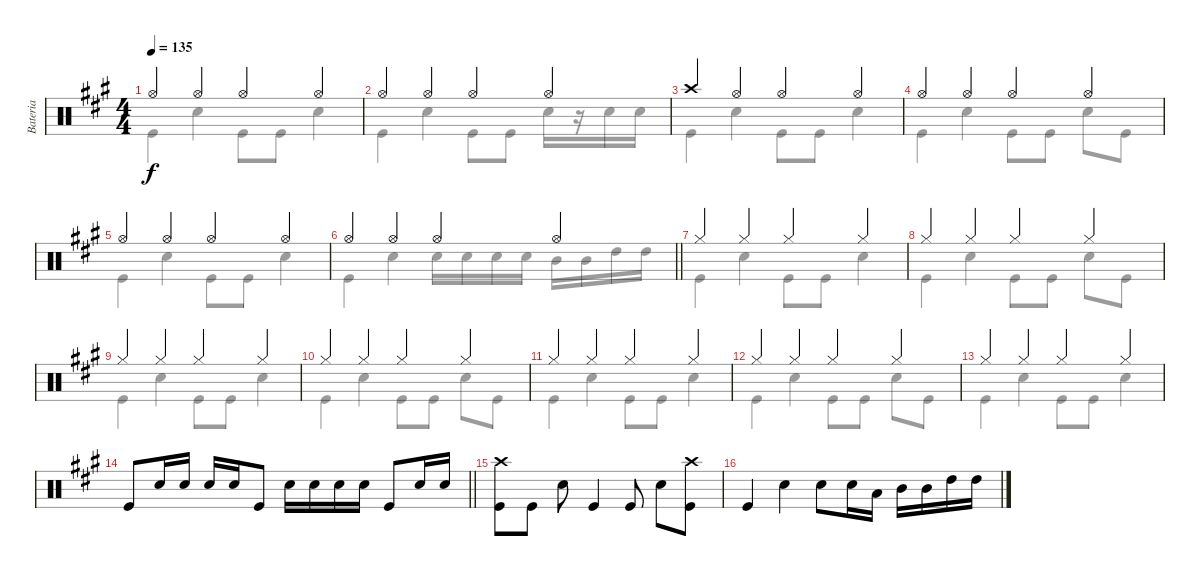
\track ("Bateria" "Bateria") {instrument percussion}
\staff {score}
\articulation defaults
\voice
\ts (4 4)
\tempo 135
\clef neutral
\ks a "Hi-Hat (open)".4{dy f} "Hi-Hat (open)".4 "Hi-Hat (open)".4 "Hi-Hat (open)".4
|
"Hi-Hat (open)".4 "Hi-Hat (open)".4 "Hi-Hat (open)".4 "Hi-Hat (open)".4 |
"Crash high (hit)".4 "Hi-Hat (open)".4 "Hi-Hat (open)".4 "Hi-Hat (open)".4 |
"Hi-Hat (open)".4 "Hi-Hat (open)".4 "Hi-Hat (open)".4 "Hi-Hat (open)".4 |
"Hi-Hat (open)".4 "Hi-Hat (open)".4 "Hi-Hat (open)".4 "Hi-Hat (open)".4 |
\barLineRight lightlight "Hi-Hat (open)".4 "Hi-Hat (open)".4 "Hi-Hat (open)".4 "Hi-Hat (open)".4
|
"Hi-Hat (closed)".4 "Hi-Hat (closed)".4 "Hi-Hat (closed)".4 "Hi-Hat (closed)".4 |
"Hi-Hat (closed)".4 "Hi-Hat (closed)".4 "Hi-Hat (closed)".4 "Hi-Hat (closed)".4 |
"Hi-Hat (closed)".4 "Hi-Hat (closed)".4 "Hi-Hat (closed)".4 "Hi-Hat (closed)".4 |
"Hi-Hat (closed)".4 "Hi-Hat (closed)".4 "Hi-Hat (closed)".4 "Hi-Hat (closed)".4 |
"Hi-Hat (closed)".4 "Hi-Hat (closed)".4 "Hi-Hat (closed)".4 "Hi-Hat (closed)".4 |
"Hi-Hat (closed)".4 "Hi-Hat (closed)".4 "Hi-Hat (closed)".4 "Hi-Hat (closed)".4 |
"Hi-Hat (closed)".4 "Hi-Hat (closed)".4 "Hi-Hat (closed)".4 "Hi-Hat (closed)".4 |
\barLineRight lightlight "Kick (hit)".8 "Snare (hit) 2".16 "Snare (hit) 2".16 "Snare (hit) 2".16 "Snare (hit) 2".16 "Kick (hit)".8 "Snare (hit) 2".16 "Snare (hit) 2".16 "Snare (hit) 2".16 "Snare (hit) 2".16 "Kick (hit)".8 "Snare (hit) 2".16 "Snare (hit) 2".16
|
("Crash high (hit)" "Kick (hit)").8 "Kick (hit)".8 "Snare (hit) 2".8 "Kick (hit)".4 "Kick (hit)".8 "Snare (hit) 2".8 ("Crash high (hit)" "Kick (hit)").8 |
"Kick (hit)".4 "Snare (hit) 2".4 "Snare (hit) 2".8 "Snare (hit) 2".16 "Low Tom (hit)".16 "Mid Tom (hit)".16 "Mid Tom (hit)".16 "High Tom (hit)".16 "High Tom (hit)".16
\voice
\clef neutral
\ottava regular
\simile none
\ks a "Kick (hit)".4{dy f} "Snare (hit) 2".4 "Kick (hit)".8 "Kick (hit)".8 "Snare (hit) 2".4
|
"Kick (hit)".4 "Snare (hit) 2".4 "Kick (hit)".8 "Kick (hit)".8 "Snare (hit) 2".16 r.16 "Snare (hit) 2".16 "Snare (hit) 2".16 |
"Kick (hit)".4 "Snare (hit) 2".4 "Kick (hit)".8 "Kick (hit)".8 "Snare (hit) 2".4 |
"Kick (hit)".4 "Snare (hit) 2".4 "Kick (hit)".8 "Kick (hit)".8 "Snare (hit) 2".8 "Kick (hit)".8 |
"Kick (hit)".4 "Snare (hit) 2".4 "Kick (hit)".8 "Kick (hit)".8 "Snare (hit) 2".4 |
\barLineRight lightlight "Kick (hit)".4 "Snare (hit) 2".4 "Snare (hit) 2".16 "Snare (hit) 2".16 "Snare (hit) 2".16 "Snare (hit) 2".16 "Mid Tom (hit)".16 "Mid Tom (hit)".16 "High Tom (hit)".16 "High Tom (hit)".16
|
"Kick (hit)".4 "Snare (hit) 2".4 "Kick (hit)".8 "Kick (hit)".8 "Snare (hit) 2".4 |
"Kick (hit)".4 "Snare (hit) 2".4 "Kick (hit)".8 "Kick (hit)".8 "Snare (hit) 2".8 "Kick (hit)".8 |
"Kick (hit)".4 "Snare (hit) 2".4 "Kick (hit)".8 "Kick (hit)".8 "Snare (hit) 2".4 |
"Kick (hit)".4 "Snare (hit) 2".4 "Kick (hit)".8 "Kick (hit)".8 "Snare (hit) 2".8 "Kick (hit)".8 |
"Kick (hit)".4 "Snare (hit) 2".4 "Kick (hit)".8 "Kick (hit)".8 "Snare (hit) 2".4 |
"Kick (hit)".4 "Snare (hit) 2".4 "Kick (hit)".8 "Kick (hit)".8 "Snare (hit) 2".8 "Kick (hit)".8 |
"Kick (hit)".4 "Snare (hit) 2".4 "Kick (hit)".8 "Kick (hit)".8 "Snare (hit) 2".4 |
\barLineRight lightlight
|
|
